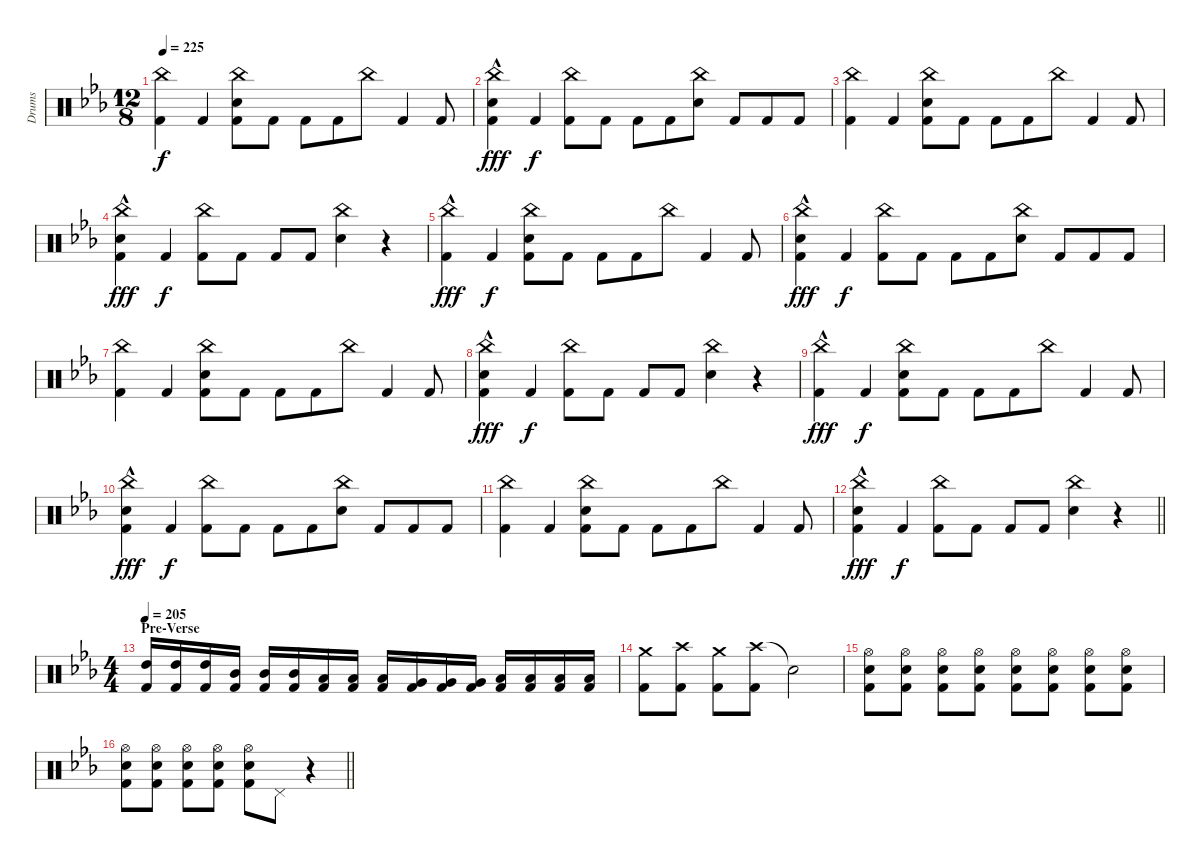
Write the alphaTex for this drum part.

\track ("Drums" "Drums") {instrument percussion}
\staff {score}
\articulation defaults
\ts (12 8)
\tempo 225
\clef neutral
\ks cminor
("China (hit)" "Kick (hit) 2").4{dy f volume 14} "Kick (hit) 2".4 ("China (hit)" "Electric Snare (hit)" "Kick (hit) 2").8 "Kick (hit) 2".8 "Kick (hit) 2".8 "Kick (hit) 2".8 "China (hit)".8 "Kick (hit) 2".4 "Kick (hit) 2".8 |
("China (hit)" "Electric Snare (hit)" "Kick (hit) 2"{hac}).4{dy fff} "Kick (hit) 2".4{dy f} ("China (hit)" "Kick (hit) 2").8 "Kick (hit) 2".8 "Kick (hit) 2".8 "Kick (hit) 2".8 ("China (hit)" "Electric Snare (hit)").8 "Kick (hit) 2".8 "Kick (hit) 2".8 "Kick (hit) 2".8 |
("China (hit)" "Kick (hit) 2").4 "Kick (hit) 2".4 ("China (hit)" "Electric Snare (hit)" "Kick (hit) 2").8 "Kick (hit) 2".8 "Kick (hit) 2".8 "Kick (hit) 2".8 "China (hit)".8 "Kick (hit) 2".4 "Kick (hit) 2".8 |
("China (hit)" "Electric Snare (hit)" "Kick (hit) 2"{hac}).4{dy fff} "Kick (hit) 2".4{dy f} ("China (hit)" "Kick (hit) 2").8 "Kick (hit) 2".8 "Kick (hit) 2".8 "Kick (hit) 2".8 ("China (hit)" "Electric Snare (hit)").4 r.4{volume 0} |
("China (hit)" "Kick (hit) 2"{hac}).4{dy fff volume 14} "Kick (hit) 2".4{dy f} ("China (hit)" "Electric Snare (hit)" "Kick (hit) 2").8 "Kick (hit) 2".8 "Kick (hit) 2".8 "Kick (hit) 2".8 "China (hit)".8 "Kick (hit) 2".4 "Kick (hit) 2".8 |
("China (hit)" "Electric Snare (hit)" "Kick (hit) 2"{hac}).4{dy fff} "Kick (hit) 2".4{dy f} ("China (hit)" "Kick (hit) 2").8 "Kick (hit) 2".8 "Kick (hit) 2".8 "Kick (hit) 2".8 ("China (hit)" "Electric Snare (hit)").8 "Kick (hit) 2".8 "Kick (hit) 2".8 "Kick (hit) 2".8 |
("China (hit)" "Kick (hit) 2").4 "Kick (hit) 2".4 ("China (hit)" "Electric Snare (hit)" "Kick (hit) 2").8 "Kick (hit) 2".8 "Kick (hit) 2".8 "Kick (hit) 2".8 "China (hit)".8 "Kick (hit) 2".4 "Kick (hit) 2".8 |
("China (hit)" "Electric Snare (hit)" "Kick (hit) 2"{hac}).4{dy fff} "Kick (hit) 2".4{dy f} ("China (hit)" "Kick (hit) 2").8 "Kick (hit) 2".8 "Kick (hit) 2".8 "Kick (hit) 2".8 ("China (hit)" "Electric Snare (hit)").4 r.4{volume 0} |
("China (hit)" "Kick (hit) 2"{hac}).4{dy fff volume 14} "Kick (hit) 2".4{dy f} ("China (hit)" "Electric Snare (hit)" "Kick (hit) 2").8 "Kick (hit) 2".8 "Kick (hit) 2".8 "Kick (hit) 2".8 "China (hit)".8 "Kick (hit) 2".4 "Kick (hit) 2".8 |
("China (hit)" "Electric Snare (hit)" "Kick (hit) 2"{hac}).4{dy fff} "Kick (hit) 2".4{dy f} ("China (hit)" "Kick (hit) 2").8 "Kick (hit) 2".8 "Kick (hit) 2".8 "Kick (hit) 2".8 ("China (hit)" "Electric Snare (hit)").8 "Kick (hit) 2".8 "Kick (hit) 2".8 "Kick (hit) 2".8 |
("China (hit)" "Kick (hit) 2").4 "Kick (hit) 2".4 ("China (hit)" "Electric Snare (hit)" "Kick (hit) 2").8 "Kick (hit) 2".8 "Kick (hit) 2".8 "Kick (hit) 2".8 "China (hit)".8 "Kick (hit) 2".4 "Kick (hit) 2".8 |
\barLineRight lightlight
("China (hit)" "Electric Snare (hit)" "Kick (hit) 2"{hac}).4{dy fff} "Kick (hit) 2".4{dy f} ("China (hit)" "Kick (hit) 2").8 "Kick (hit) 2".8 "Kick (hit) 2".8 "Kick (hit) 2".8 ("China (hit)" "Electric Snare (hit)").4 r.4{volume 0} |
\ts (4 4)
\section ("" "Pre-Verse")
\tempo 205
("High Tom (hit)" "Kick (hit) 2").16{volume 14} ("High Tom (hit)" "Kick (hit) 2").16 ("High Tom (hit)" "Kick (hit) 2").16 ("Mid Tom (hit)" "Kick (hit) 2").16 ("Mid Tom (hit)" "Kick (hit) 2").16 ("Mid Tom (hit)" "Kick (hit) 2").16 ("Low Tom (hit)" "Kick (hit) 2").16 ("Low Tom (hit)" "Kick (hit) 2").16 ("Low Tom (hit)" "Kick (hit) 2").16 ("Very Low Tom (hit)" "Kick (hit) 2").16 ("Very Low Tom (hit)" "Kick (hit) 2").16 ("Very Low Tom (hit)" "Kick (hit) 2").16 ("Low Floor Tom (hit)" "Kick (hit) 2").16 ("Low Floor Tom (hit)" "Kick (hit) 2").16 ("Low Floor Tom (hit)" "Kick (hit) 2").16 ("Low Floor Tom (hit)" "Kick (hit) 2").16 |
("Crash medium (hit)" "Kick (hit) 2").8 ("Crash high (hit)" "Kick (hit) 2").8 ("Crash medium (hit)" "Kick (hit) 2").8 ("Crash high (hit)" "Kick (hit) 2").8 "Snare (hit)"{t}.2 |
("Hi-Hat (open)" "Electric Snare (hit)" "Kick (hit) 2").8 ("Hi-Hat (open)" "Electric Snare (hit)" "Kick (hit) 2").8 ("Hi-Hat (open)" "Electric Snare (hit)" "Kick (hit) 2").8 ("Hi-Hat (open)" "Electric Snare (hit)" "Kick (hit) 2").8 ("Hi-Hat (open)" "Electric Snare (hit)" "Kick (hit) 2").8 ("Hi-Hat (open)" "Electric Snare (hit)" "Kick (hit) 2").8 ("Hi-Hat (open)" "Electric Snare (hit)" "Kick (hit) 2").8 ("Hi-Hat (open)" "Electric Snare (hit)" "Kick (hit) 2").8 |
\barLineRight lightlight
("Hi-Hat (open)" "Electric Snare (hit)" "Kick (hit) 2").8 ("Hi-Hat (open)" "Electric Snare (hit)" "Kick (hit) 2").8 ("Hi-Hat (open)" "Electric Snare (hit)" "Kick (hit) 2").8 ("Hi-Hat (open)" "Electric Snare (hit)" "Kick (hit) 2").8 ("Hi-Hat (open)" "Electric Snare (hit)" "Kick (hit) 2").8 "Pedal Hi-Hat (hit)".8 r.4
